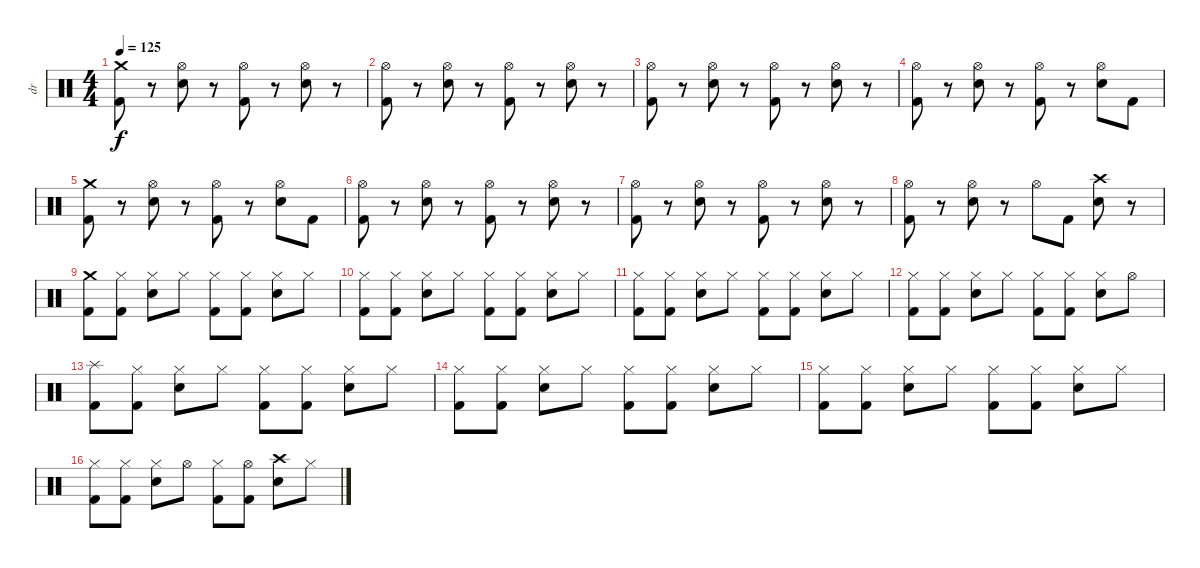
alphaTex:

\track ("dr" "dr") {instrument percussion}
\staff {score}
\articulation defaults
\ts (4 4)
\tempo 125
\clef neutral
\ks c
("Crash medium (hit)" "Kick (hit) 2").8{dy f} r.8 ("Hi-Hat (open)" "Snare (hit) 2").8 r.8 ("Hi-Hat (open)" "Kick (hit) 2").8 r.8 ("Hi-Hat (open)" "Snare (hit) 2").8 r.8 |
("Hi-Hat (open)" "Kick (hit) 2").8 r.8 ("Hi-Hat (open)" "Snare (hit) 2").8 r.8 ("Hi-Hat (open)" "Kick (hit) 2").8 r.8 ("Hi-Hat (open)" "Snare (hit) 2").8 r.8 |
("Hi-Hat (open)" "Kick (hit) 2").8 r.8 ("Hi-Hat (open)" "Snare (hit) 2").8 r.8 ("Hi-Hat (open)" "Kick (hit) 2").8 r.8 ("Hi-Hat (open)" "Snare (hit) 2").8 r.8 |
("Hi-Hat (open)" "Kick (hit) 2").8 r.8 ("Hi-Hat (open)" "Snare (hit) 2").8 r.8 ("Hi-Hat (open)" "Kick (hit) 2").8 r.8 ("Hi-Hat (open)" "Snare (hit) 2").8 "Kick (hit) 2".8 |
("Crash medium (hit)" "Kick (hit) 2").8 r.8 ("Hi-Hat (open)" "Snare (hit) 2").8 r.8 ("Hi-Hat (open)" "Kick (hit) 2").8 r.8 ("Hi-Hat (open)" "Snare (hit) 2").8 "Kick (hit) 2".8 |
("Hi-Hat (open)" "Kick (hit) 2").8 r.8 ("Hi-Hat (open)" "Snare (hit) 2").8 r.8 ("Hi-Hat (open)" "Kick (hit) 2").8 r.8 ("Hi-Hat (open)" "Snare (hit) 2").8 r.8 |
("Hi-Hat (open)" "Kick (hit) 2").8 r.8 ("Hi-Hat (open)" "Snare (hit) 2").8 r.8 ("Hi-Hat (open)" "Kick (hit) 2").8 r.8 ("Hi-Hat (open)" "Snare (hit) 2").8 r.8 |
("Hi-Hat (open)" "Kick (hit) 2").8 r.8 ("Hi-Hat (open)" "Snare (hit) 2").8 r.8 "Hi-Hat (open)".8 "Kick (hit) 2".8 ("Crash high (hit)" "Snare (hit) 2").8 r.8 |
("Crash medium (hit)" "Kick (hit) 2").8 ("Hi-Hat (closed)" "Kick (hit) 2").8 ("Hi-Hat (closed)" "Snare (hit) 2").8 "Hi-Hat (closed)".8 ("Hi-Hat (closed)" "Kick (hit) 2").8 ("Hi-Hat (closed)" "Kick (hit) 2").8 ("Hi-Hat (closed)" "Snare (hit) 2").8 "Hi-Hat (closed)".8 |
("Hi-Hat (closed)" "Kick (hit) 2").8 ("Hi-Hat (closed)" "Kick (hit) 2").8 ("Hi-Hat (closed)" "Snare (hit) 2").8 "Hi-Hat (closed)".8 ("Hi-Hat (closed)" "Kick (hit) 2").8 ("Hi-Hat (closed)" "Kick (hit) 2").8 ("Hi-Hat (closed)" "Snare (hit) 2").8 "Hi-Hat (closed)".8 |
("Hi-Hat (closed)" "Kick (hit) 2").8 ("Hi-Hat (closed)" "Kick (hit) 2").8 ("Hi-Hat (closed)" "Snare (hit) 2").8 "Hi-Hat (closed)".8 ("Hi-Hat (closed)" "Kick (hit) 2").8 ("Hi-Hat (closed)" "Kick (hit) 2").8 ("Hi-Hat (closed)" "Snare (hit) 2").8 "Hi-Hat (closed)".8 |
("Hi-Hat (closed)" "Kick (hit) 2").8 ("Hi-Hat (closed)" "Kick (hit) 2").8 ("Hi-Hat (closed)" "Snare (hit) 2").8 "Hi-Hat (closed)".8 ("Hi-Hat (closed)" "Kick (hit) 2").8 ("Hi-Hat (closed)" "Kick (hit) 2").8 ("Hi-Hat (closed)" "Snare (hit) 2").8 "Hi-Hat (open)".8 |
("Splash (hit)" "Kick (hit) 2").8 ("Hi-Hat (closed)" "Kick (hit) 2").8 ("Hi-Hat (closed)" "Snare (hit) 2").8 "Hi-Hat (closed)".8 ("Hi-Hat (closed)" "Kick (hit) 2").8 ("Hi-Hat (closed)" "Kick (hit) 2").8 ("Hi-Hat (closed)" "Snare (hit) 2").8 "Hi-Hat (closed)".8 |
("Hi-Hat (closed)" "Kick (hit) 2").8 ("Hi-Hat (closed)" "Kick (hit) 2").8 ("Hi-Hat (closed)" "Snare (hit) 2").8 "Hi-Hat (closed)".8 ("Hi-Hat (closed)" "Kick (hit) 2").8 ("Hi-Hat (closed)" "Kick (hit) 2").8 ("Hi-Hat (closed)" "Snare (hit) 2").8 "Hi-Hat (closed)".8 |
("Hi-Hat (closed)" "Kick (hit) 2").8 ("Hi-Hat (closed)" "Kick (hit) 2").8 ("Hi-Hat (closed)" "Snare (hit) 2").8 "Hi-Hat (closed)".8 ("Hi-Hat (closed)" "Kick (hit) 2").8 ("Hi-Hat (closed)" "Kick (hit) 2").8 ("Hi-Hat (closed)" "Snare (hit) 2").8 "Hi-Hat (closed)".8 |
("Hi-Hat (closed)" "Kick (hit) 2").8 ("Hi-Hat (closed)" "Kick (hit) 2").8 ("Hi-Hat (closed)" "Snare (hit) 2").8 "Hi-Hat (open)".8 ("Hi-Hat (closed)" "Kick (hit) 2").8 ("Hi-Hat (open)" "Kick (hit) 2").8 ("Crash high (hit)" "Snare (hit) 2").8 "Hi-Hat (closed)".8
